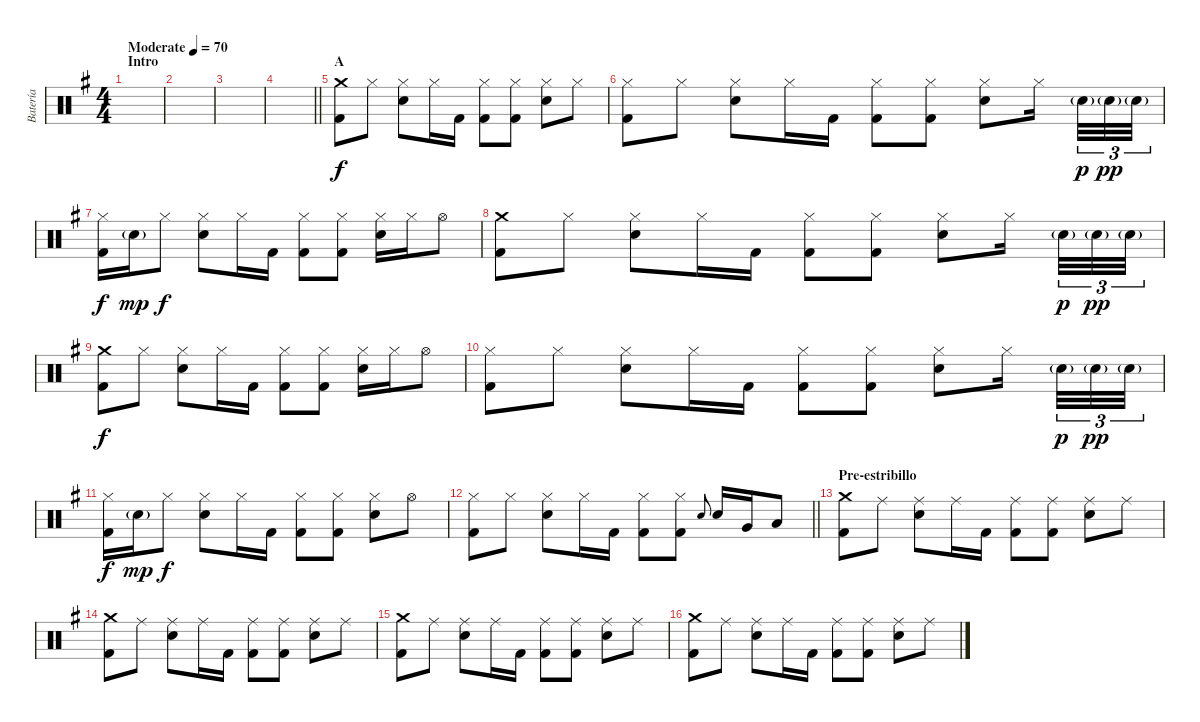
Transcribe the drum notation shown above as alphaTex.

\track ("Batería" "Batería") {instrument percussion}
\staff {score}
\articulation defaults
\ts (4 4)
\section ("" "Intro")
\tempo (70 "Moderate")
\clef neutral
\ks g
|
|
|
\barLineRight lightlight
|
\section ("" "A")
("Crash medium (hit)" "Kick (hit) 2").8 "Hi-Hat (closed)".8 ("Hi-Hat (closed)" "Electric Snare (hit)").8 "Hi-Hat (closed)".16 "Kick (hit) 2".16 ("Hi-Hat (closed)" "Kick (hit) 2").8 ("Hi-Hat (closed)" "Kick (hit) 2").8 ("Hi-Hat (closed)" "Electric Snare (hit)").8 "Hi-Hat (closed)".8 |
("Hi-Hat (closed)" "Kick (hit) 2").8 "Hi-Hat (closed)".8 ("Hi-Hat (closed)" "Electric Snare (hit)").8 "Hi-Hat (closed)".16 "Kick (hit) 2".16 ("Hi-Hat (closed)" "Kick (hit) 2").8 ("Hi-Hat (closed)" "Kick (hit) 2").8 ("Hi-Hat (closed)" "Electric Snare (hit)").8 "Hi-Hat (closed)".16{beam splitsecondary} "Electric Snare (hit)"{g}.32{tu (3 2) dy p} "Electric Snare (hit)"{g}.32{tu (3 2) dy pp} "Electric Snare (hit)"{g}.32{tu (3 2)} |
("Hi-Hat (closed)" "Kick (hit) 2").16{dy f} "Electric Snare (hit)"{g}.16{dy mp} "Hi-Hat (closed)".8{dy f} ("Hi-Hat (closed)" "Electric Snare (hit)").8 "Hi-Hat (closed)".16 "Kick (hit) 2".16 ("Hi-Hat (closed)" "Kick (hit) 2").8 ("Hi-Hat (closed)" "Kick (hit) 2").8 ("Hi-Hat (closed)" "Electric Snare (hit)").16 "Hi-Hat (closed)".16 "Hi-Hat (open)".8 |
("Crash medium (hit)" "Kick (hit) 2").8 "Hi-Hat (closed)".8 ("Hi-Hat (closed)" "Electric Snare (hit)").8 "Hi-Hat (closed)".16 "Kick (hit) 2".16 ("Hi-Hat (closed)" "Kick (hit) 2").8 ("Hi-Hat (closed)" "Kick (hit) 2").8 ("Hi-Hat (closed)" "Electric Snare (hit)").8 "Hi-Hat (closed)".16{beam splitsecondary} "Electric Snare (hit)"{g}.32{tu (3 2) dy p} "Electric Snare (hit)"{g}.32{tu (3 2) dy pp} "Electric Snare (hit)"{g}.32{tu (3 2)} |
("Crash medium (hit)" "Kick (hit) 2").8{dy f} "Hi-Hat (closed)".8 ("Hi-Hat (closed)" "Electric Snare (hit)").8 "Hi-Hat (closed)".16 "Kick (hit) 2".16 ("Hi-Hat (closed)" "Kick (hit) 2").8 ("Hi-Hat (closed)" "Kick (hit) 2").8 ("Hi-Hat (closed)" "Electric Snare (hit)").16 "Hi-Hat (closed)".16 "Hi-Hat (open)".8 |
("Hi-Hat (closed)" "Kick (hit) 2").8 "Hi-Hat (closed)".8 ("Hi-Hat (closed)" "Electric Snare (hit)").8 "Hi-Hat (closed)".16 "Kick (hit) 2".16 ("Hi-Hat (closed)" "Kick (hit) 2").8 ("Hi-Hat (closed)" "Kick (hit) 2").8 ("Hi-Hat (closed)" "Electric Snare (hit)").8 "Hi-Hat (closed)".16{beam splitsecondary} "Electric Snare (hit)"{g}.32{tu (3 2) dy p} "Electric Snare (hit)"{g}.32{tu (3 2) dy pp} "Electric Snare (hit)"{g}.32{tu (3 2)} |
("Hi-Hat (closed)" "Kick (hit) 2").16{dy f} "Electric Snare (hit)"{g}.16{dy mp} "Hi-Hat (closed)".8{dy f} ("Hi-Hat (closed)" "Electric Snare (hit)").8 "Hi-Hat (closed)".16 "Kick (hit) 2".16 ("Hi-Hat (closed)" "Kick (hit) 2").8 ("Hi-Hat (closed)" "Kick (hit) 2").8 ("Hi-Hat (closed)" "Electric Snare (hit)").8 "Hi-Hat (open)".8 |
\barLineRight lightlight
("Hi-Hat (closed)" "Kick (hit) 2").8 "Hi-Hat (closed)".8 ("Hi-Hat (closed)" "Electric Snare (hit)").8 "Hi-Hat (closed)".16 "Kick (hit) 2".16 ("Hi-Hat (closed)" "Kick (hit) 2").8 ("Hi-Hat (closed)" "Kick (hit) 2").8 "Electric Snare (hit)".8{gr onbeat} "Electric Snare (hit)".16 "Very Low Tom (hit)".16 "Low Floor Tom (hit)".8 |
\section ("" "Pre-estribillo")
("Crash medium (hit)" "Kick (hit) 2").8 "Ride (middle)".8 ("Ride (middle)" "Electric Snare (hit)").8 "Ride (middle)".16 "Kick (hit) 2".16 ("Ride (middle)" "Kick (hit) 2").8 ("Ride (middle)" "Kick (hit) 2").8 ("Ride (middle)" "Electric Snare (hit)").8 "Ride (middle)".8 |
("Crash medium (hit)" "Kick (hit) 2").8 "Ride (middle)".8 ("Ride (middle)" "Electric Snare (hit)").8 "Ride (middle)".16 "Kick (hit) 2".16 ("Ride (middle)" "Kick (hit) 2").8 ("Ride (middle)" "Kick (hit) 2").8 ("Ride (middle)" "Electric Snare (hit)").8 "Ride (middle)".8 |
("Crash medium (hit)" "Kick (hit) 2").8 "Ride (middle)".8 ("Ride (middle)" "Electric Snare (hit)").8 "Ride (middle)".16 "Kick (hit) 2".16 ("Ride (middle)" "Kick (hit) 2").8 ("Ride (middle)" "Kick (hit) 2").8 ("Ride (middle)" "Electric Snare (hit)").8 "Ride (middle)".8 |
("Crash medium (hit)" "Kick (hit) 2").8 "Ride (middle)".8 ("Ride (middle)" "Electric Snare (hit)").8 "Ride (middle)".16 "Kick (hit) 2".16 ("Ride (middle)" "Kick (hit) 2").8 ("Ride (middle)" "Kick (hit) 2").8 ("Ride (middle)" "Electric Snare (hit)").8 "Ride (middle)".8
